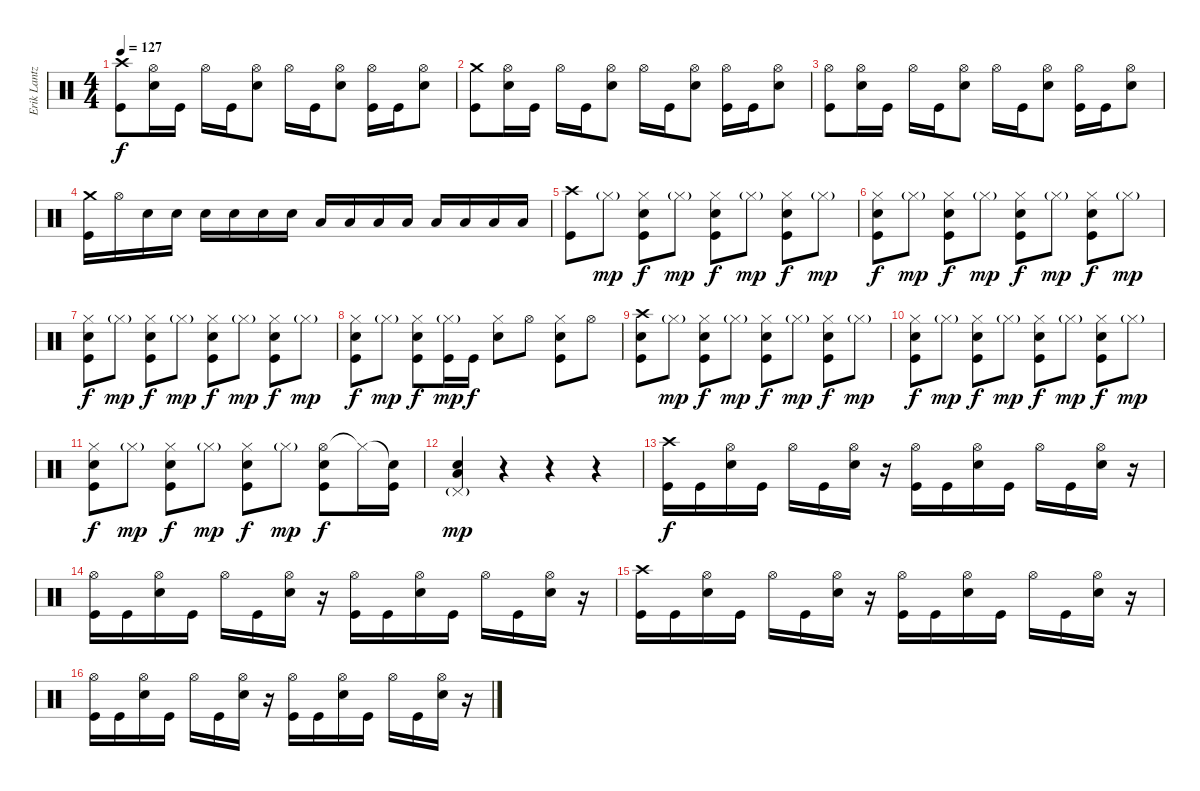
\track ("Erik Lantz" "Erik Lantz") {instrument percussion}
\staff {score}
\articulation defaults
\ts (4 4)
\tempo 127
\clef neutral
\ks c
("Crash high (hit)" "Kick (hit)").8{dy f} ("Hi-Hat (open)" "Electric Snare (hit)").16 "Kick (hit)".16 "Hi-Hat (open)".16 "Kick (hit)".16 ("Hi-Hat (open)" "Electric Snare (hit)").8 "Hi-Hat (open)".16 "Kick (hit)".16 ("Hi-Hat (open)" "Electric Snare (hit)").8 ("Hi-Hat (open)" "Kick (hit)").16 "Kick (hit)".16 ("Hi-Hat (open)" "Electric Snare (hit)").8 |
("Crash medium (hit)" "Kick (hit)").8 ("Hi-Hat (open)" "Electric Snare (hit)").16 "Kick (hit)".16 "Hi-Hat (open)".16 "Kick (hit)".16 ("Hi-Hat (open)" "Electric Snare (hit)").8 "Hi-Hat (open)".16 "Kick (hit)".16 ("Hi-Hat (open)" "Electric Snare (hit)").8 ("Hi-Hat (open)" "Kick (hit)").16 "Kick (hit)".16 ("Hi-Hat (open)" "Electric Snare (hit)").8 |
("Hi-Hat (open)" "Kick (hit)").8 ("Hi-Hat (open)" "Electric Snare (hit)").16 "Kick (hit)".16 "Hi-Hat (open)".16 "Kick (hit)".16 ("Hi-Hat (open)" "Electric Snare (hit)").8 "Hi-Hat (open)".16 "Kick (hit)".16 ("Hi-Hat (open)" "Electric Snare (hit)").8 ("Hi-Hat (open)" "Kick (hit)").16 "Kick (hit)".16 ("Hi-Hat (open)" "Electric Snare (hit)").8 |
("Crash medium (hit)" "Kick (hit)").16 "Hi-Hat (open)".16 "Electric Snare (hit)".16 "Electric Snare (hit)".16 "Electric Snare (hit)".16 "Electric Snare (hit)".16 "Electric Snare (hit)".16 "Electric Snare (hit)".16 "Low Tom (hit)".16 "Low Tom (hit)".16 "Low Tom (hit)".16 "Low Tom (hit)".16 "Low Floor Tom (hit)".16 "Low Floor Tom (hit)".16 "Low Floor Tom (hit)".16 "Low Floor Tom (hit)".16 |
("Crash high (hit)" "Kick (hit)").8 "Hi-Hat (closed)"{g}.8{dy mp} ("Hi-Hat (closed)" "Electric Snare (hit)" "Kick (hit)").8{dy f} "Hi-Hat (closed)"{g}.8{dy mp} ("Hi-Hat (closed)" "Electric Snare (hit)" "Kick (hit)").8{dy f} "Hi-Hat (closed)"{g}.8{dy mp} ("Hi-Hat (closed)" "Electric Snare (hit)" "Kick (hit)").8{dy f} "Hi-Hat (closed)"{g}.8{dy mp} |
("Hi-Hat (closed)" "Electric Snare (hit)" "Kick (hit)").8{dy f} "Hi-Hat (closed)"{g}.8{dy mp} ("Hi-Hat (closed)" "Electric Snare (hit)" "Kick (hit)").8{dy f} "Hi-Hat (closed)"{g}.8{dy mp} ("Hi-Hat (closed)" "Electric Snare (hit)" "Kick (hit)").8{dy f} "Hi-Hat (closed)"{g}.8{dy mp} ("Hi-Hat (closed)" "Electric Snare (hit)" "Kick (hit)").8{dy f} "Hi-Hat (closed)"{g}.8{dy mp} |
("Hi-Hat (closed)" "Electric Snare (hit)" "Kick (hit)").8{dy f} "Hi-Hat (closed)"{g}.8{dy mp} ("Hi-Hat (closed)" "Electric Snare (hit)" "Kick (hit)").8{dy f} "Hi-Hat (closed)"{g}.8{dy mp} ("Hi-Hat (closed)" "Electric Snare (hit)" "Kick (hit)").8{dy f} "Hi-Hat (closed)"{g}.8{dy mp} ("Hi-Hat (closed)" "Electric Snare (hit)" "Kick (hit)").8{dy f} "Hi-Hat (closed)"{g}.8{dy mp} |
("Hi-Hat (closed)" "Electric Snare (hit)" "Kick (hit)").8{dy f} "Hi-Hat (closed)"{g}.8{dy mp} ("Hi-Hat (closed)" "Electric Snare (hit)" "Kick (hit)").8{dy f} ("Hi-Hat (closed)"{g} "Kick (hit)").16{dy mp} "Kick (hit)".16{dy f} ("Hi-Hat (closed)" "Electric Snare (hit)").8 "Hi-Hat (open)".8 ("Hi-Hat (closed)" "Electric Snare (hit)" "Kick (hit)").8 "Hi-Hat (open)".8 |
("Crash high (hit)" "Electric Snare (hit)" "Kick (hit)").8 "Hi-Hat (closed)"{g}.8{dy mp} ("Hi-Hat (closed)" "Electric Snare (hit)" "Kick (hit)").8{dy f} "Hi-Hat (closed)"{g}.8{dy mp} ("Hi-Hat (closed)" "Electric Snare (hit)" "Kick (hit)").8{dy f} "Hi-Hat (closed)"{g}.8{dy mp} ("Hi-Hat (closed)" "Electric Snare (hit)" "Kick (hit)").8{dy f} "Hi-Hat (closed)"{g}.8{dy mp} |
("Hi-Hat (closed)" "Electric Snare (hit)" "Kick (hit)").8{dy f} "Hi-Hat (closed)"{g}.8{dy mp} ("Hi-Hat (closed)" "Electric Snare (hit)" "Kick (hit)").8{dy f} "Hi-Hat (closed)"{g}.8{dy mp} ("Hi-Hat (closed)" "Electric Snare (hit)" "Kick (hit)").8{dy f} "Hi-Hat (closed)"{g}.8{dy mp} ("Hi-Hat (closed)" "Electric Snare (hit)" "Kick (hit)").8{dy f} "Hi-Hat (closed)"{g}.8{dy mp} |
("Hi-Hat (closed)" "Electric Snare (hit)" "Kick (hit)").8{dy f} "Hi-Hat (closed)"{g}.8{dy mp} ("Hi-Hat (closed)" "Electric Snare (hit)" "Kick (hit)").8{dy f} "Hi-Hat (closed)"{g}.8{dy mp} ("Hi-Hat (closed)" "Electric Snare (hit)" "Kick (hit)").8{dy f} "Hi-Hat (closed)"{g}.8{dy mp} ("Hi-Hat (open)" "Electric Snare (hit)" "Kick (hit)").8{dy f} "Hi-Hat (closed)"{t}.16 ("Snare (hit)"{t} "Kick (hit)").16 |
("Low Floor Tom (hit)" "Electric Snare (hit)" "Pedal Hi-Hat (hit)"{g}).4{dy mp} r.4 r.4 r.4 |
("Crash high (hit)" "Kick (hit)").16{dy f} "Kick (hit)".16 ("Hi-Hat (open)" "Electric Snare (hit)").16 "Kick (hit)".16 "Hi-Hat (open)".16 "Kick (hit)".16 ("Hi-Hat (open)" "Electric Snare (hit)").16 r.16 ("Hi-Hat (open)" "Kick (hit)").16 "Kick (hit)".16 ("Hi-Hat (open)" "Electric Snare (hit)").16 "Kick (hit)".16 "Hi-Hat (open)".16 "Kick (hit)".16 ("Hi-Hat (open)" "Electric Snare (hit)").16 r.16 |
("Hi-Hat (open)" "Kick (hit)").16 "Kick (hit)".16 ("Hi-Hat (open)" "Electric Snare (hit)").16 "Kick (hit)".16 "Hi-Hat (open)".16 "Kick (hit)".16 ("Hi-Hat (open)" "Electric Snare (hit)").16 r.16 ("Hi-Hat (open)" "Kick (hit)").16 "Kick (hit)".16 ("Hi-Hat (open)" "Electric Snare (hit)").16 "Kick (hit)".16 "Hi-Hat (open)".16 "Kick (hit)".16 ("Hi-Hat (open)" "Electric Snare (hit)").16 r.16 |
("Crash high (hit)" "Kick (hit)").16 "Kick (hit)".16 ("Hi-Hat (open)" "Electric Snare (hit)").16 "Kick (hit)".16 "Hi-Hat (open)".16 "Kick (hit)".16 ("Hi-Hat (open)" "Electric Snare (hit)").16 r.16 ("Hi-Hat (open)" "Kick (hit)").16 "Kick (hit)".16 ("Hi-Hat (open)" "Electric Snare (hit)").16 "Kick (hit)".16 "Hi-Hat (open)".16 "Kick (hit)".16 ("Hi-Hat (open)" "Electric Snare (hit)").16 r.16 |
("Hi-Hat (open)" "Kick (hit)").16 "Kick (hit)".16 ("Hi-Hat (open)" "Electric Snare (hit)").16 "Kick (hit)".16 "Hi-Hat (open)".16 "Kick (hit)".16 ("Hi-Hat (open)" "Electric Snare (hit)").16 r.16 ("Hi-Hat (open)" "Kick (hit)").16 "Kick (hit)".16 ("Hi-Hat (open)" "Electric Snare (hit)").16 "Kick (hit)".16 "Hi-Hat (open)".16 "Kick (hit)".16 ("Hi-Hat (open)" "Electric Snare (hit)").16 r.16
